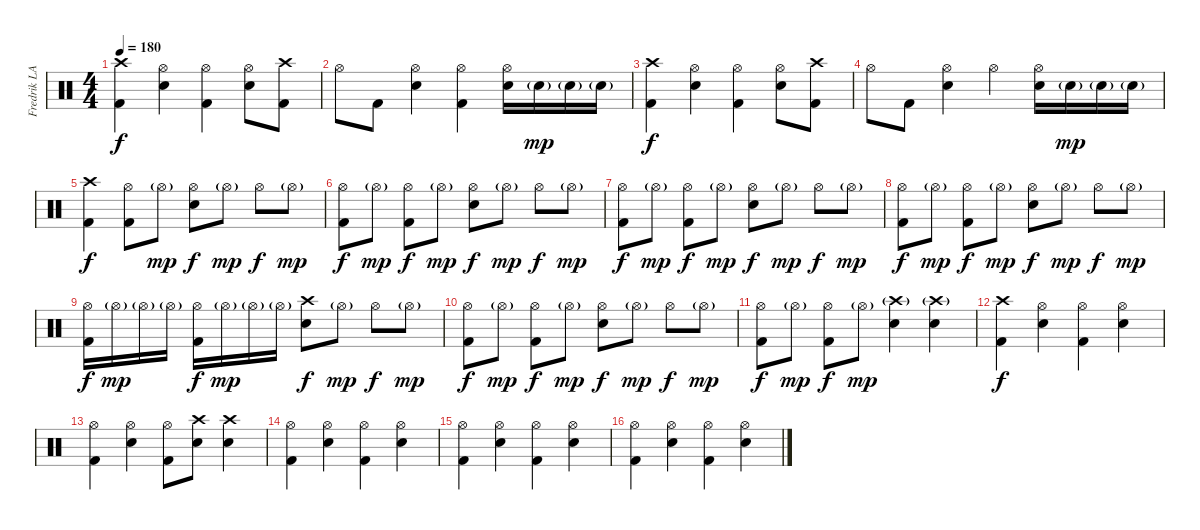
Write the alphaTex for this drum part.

\track ("Fredrik LARZON" "Fredrik LA") {instrument percussion}
\staff {score}
\articulation defaults
\ts (4 4)
\tempo 180
\clef neutral
\ks c
("Crash high (hit)" "Kick (hit) 2").4{dy f} ("Hi-Hat (open)" "Electric Snare (hit)").4 ("Hi-Hat (open)" "Kick (hit) 2").4 ("Hi-Hat (open)" "Electric Snare (hit)").8 ("Crash high (hit)" "Kick (hit) 2").8 |
"Hi-Hat (open)".8 "Kick (hit) 2".8 ("Hi-Hat (open)" "Electric Snare (hit)").4 ("Hi-Hat (open)" "Kick (hit) 2").4 ("Hi-Hat (open)" "Electric Snare (hit)").16 "Electric Snare (hit)"{g}.16{dy mp} "Electric Snare (hit)"{g}.16 "Electric Snare (hit)"{g}.16 |
("Crash high (hit)" "Kick (hit) 2").4{dy f} ("Hi-Hat (open)" "Electric Snare (hit)").4 ("Hi-Hat (open)" "Kick (hit) 2").4 ("Hi-Hat (open)" "Electric Snare (hit)").8 ("Crash high (hit)" "Kick (hit) 2").8 |
"Hi-Hat (open)".8 "Kick (hit) 2".8 ("Hi-Hat (open)" "Electric Snare (hit)").4 "Hi-Hat (open)".4 ("Hi-Hat (open)" "Electric Snare (hit)").16 "Electric Snare (hit)"{g}.16{dy mp} "Electric Snare (hit)"{g}.16 "Electric Snare (hit)"{g}.16 |
("Crash high (hit)" "Kick (hit) 2").4{dy f} ("Hi-Hat (open)" "Kick (hit) 2").8 "Hi-Hat (open)"{g}.8{dy mp} ("Hi-Hat (open)" "Electric Snare (hit)").8{dy f} "Hi-Hat (open)"{g}.8{dy mp} "Hi-Hat (open)".8{dy f} "Hi-Hat (open)"{g}.8{dy mp} |
("Hi-Hat (open)" "Kick (hit) 2").8{dy f} "Hi-Hat (open)"{g}.8{dy mp} ("Hi-Hat (open)" "Kick (hit) 2").8{dy f} "Hi-Hat (open)"{g}.8{dy mp} ("Hi-Hat (open)" "Electric Snare (hit)").8{dy f} "Hi-Hat (open)"{g}.8{dy mp} "Hi-Hat (open)".8{dy f} "Hi-Hat (open)"{g}.8{dy mp} |
("Hi-Hat (open)" "Kick (hit) 2").8{dy f} "Hi-Hat (open)"{g}.8{dy mp} ("Hi-Hat (open)" "Kick (hit) 2").8{dy f} "Hi-Hat (open)"{g}.8{dy mp} ("Hi-Hat (open)" "Electric Snare (hit)").8{dy f} "Hi-Hat (open)"{g}.8{dy mp} "Hi-Hat (open)".8{dy f} "Hi-Hat (open)"{g}.8{dy mp} |
("Hi-Hat (open)" "Kick (hit) 2").8{dy f} "Hi-Hat (open)"{g}.8{dy mp} ("Hi-Hat (open)" "Kick (hit) 2").8{dy f} "Hi-Hat (open)"{g}.8{dy mp} ("Hi-Hat (open)" "Electric Snare (hit)").8{dy f} "Hi-Hat (open)"{g}.8{dy mp} "Hi-Hat (open)".8{dy f} "Hi-Hat (open)"{g}.8{dy mp} |
("Hi-Hat (open)" "Kick (hit) 2").16{dy f} "Hi-Hat (open)"{g}.16{dy mp} "Hi-Hat (open)"{g}.16 "Hi-Hat (open)"{g}.16 ("Hi-Hat (open)" "Kick (hit) 2").16{dy f} "Hi-Hat (open)"{g}.16{dy mp} "Hi-Hat (open)"{g}.16 "Hi-Hat (open)"{g}.16 ("Crash high (hit)" "Electric Snare (hit)").8{dy f} "Hi-Hat (open)"{g}.8{dy mp} "Hi-Hat (open)".8{dy f} "Hi-Hat (open)"{g}.8{dy mp} |
("Hi-Hat (open)" "Kick (hit) 2").8{dy f} "Hi-Hat (open)"{g}.8{dy mp} ("Hi-Hat (open)" "Kick (hit) 2").8{dy f} "Hi-Hat (open)"{g}.8{dy mp} ("Hi-Hat (open)" "Electric Snare (hit)").8{dy f} "Hi-Hat (open)"{g}.8{dy mp} "Hi-Hat (open)".8{dy f} "Hi-Hat (open)"{g}.8{dy mp} |
("Hi-Hat (open)" "Kick (hit) 2").8{dy f} "Hi-Hat (open)"{g}.8{dy mp} ("Hi-Hat (open)" "Kick (hit) 2").8{dy f} "Hi-Hat (open)"{g}.8{dy mp} ("Crash high (hit)"{g} "Electric Snare (hit)").4 ("Crash high (hit)"{g} "Electric Snare (hit)").4 |
("Crash high (hit)" "Kick (hit) 2").4{dy f} ("Hi-Hat (open)" "Electric Snare (hit)").4 ("Hi-Hat (open)" "Kick (hit) 2").4 ("Hi-Hat (open)" "Electric Snare (hit)").4 |
("Hi-Hat (open)" "Kick (hit) 2").4 ("Hi-Hat (open)" "Electric Snare (hit)").4 ("Hi-Hat (open)" "Kick (hit) 2").8 ("Crash high (hit)" "Electric Snare (hit)").8 ("Crash high (hit)" "Electric Snare (hit)").4 |
("Hi-Hat (open)" "Kick (hit) 2").4 ("Hi-Hat (open)" "Electric Snare (hit)").4 ("Hi-Hat (open)" "Kick (hit) 2").4 ("Hi-Hat (open)" "Electric Snare (hit)").4 |
("Hi-Hat (open)" "Kick (hit) 2").4 ("Hi-Hat (open)" "Electric Snare (hit)").4 ("Hi-Hat (open)" "Kick (hit) 2").4 ("Hi-Hat (open)" "Electric Snare (hit)").4 |
("Hi-Hat (open)" "Kick (hit) 2").4 ("Hi-Hat (open)" "Electric Snare (hit)").4 ("Hi-Hat (open)" "Kick (hit) 2").4 ("Hi-Hat (open)" "Electric Snare (hit)").4
